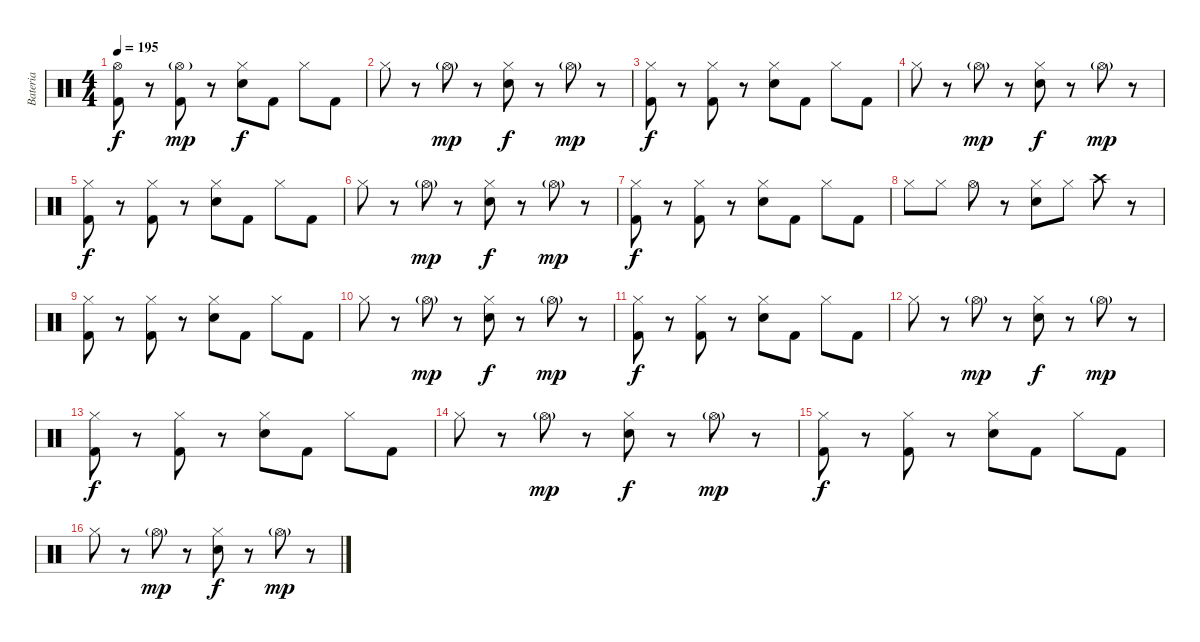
\track ("Bateria" "Bateria") {instrument percussion}
\staff {score}
\articulation defaults
\ts (4 4)
\tempo 195
\clef neutral
\ks c
("Hi-Hat (open)" "Kick (hit) 2").8{dy f} r.8 ("Hi-Hat (open)"{g} "Kick (hit) 2").8{dy mp} r.8 ("Hi-Hat (closed)" "Snare (hit) 2").8{dy f} "Kick (hit) 2".8 "Hi-Hat (closed)".8 "Kick (hit) 2".8 |
"Hi-Hat (closed)".8 r.8 "Hi-Hat (open)"{g}.8{dy mp} r.8 ("Hi-Hat (closed)" "Snare (hit) 2").8{dy f} r.8 "Hi-Hat (open)"{g}.8{dy mp} r.8 |
("Hi-Hat (closed)" "Kick (hit) 2").8{dy f} r.8 ("Hi-Hat (closed)" "Kick (hit) 2").8 r.8 ("Hi-Hat (closed)" "Snare (hit) 2").8 "Kick (hit) 2".8 "Hi-Hat (closed)".8 "Kick (hit) 2".8 |
"Hi-Hat (closed)".8 r.8 "Hi-Hat (open)"{g}.8{dy mp} r.8 ("Hi-Hat (closed)" "Snare (hit) 2").8{dy f} r.8 "Hi-Hat (open)"{g}.8{dy mp} r.8 |
("Hi-Hat (closed)" "Kick (hit) 2").8{dy f} r.8 ("Hi-Hat (closed)" "Kick (hit) 2").8 r.8 ("Hi-Hat (closed)" "Snare (hit) 2").8 "Kick (hit) 2".8 "Hi-Hat (closed)".8 "Kick (hit) 2".8 |
"Hi-Hat (closed)".8 r.8 "Hi-Hat (open)"{g}.8{dy mp} r.8 ("Hi-Hat (closed)" "Snare (hit) 2").8{dy f} r.8 "Hi-Hat (open)"{g}.8{dy mp} r.8 |
("Hi-Hat (closed)" "Kick (hit) 2").8{dy f} r.8 ("Hi-Hat (closed)" "Kick (hit) 2").8 r.8 ("Hi-Hat (closed)" "Snare (hit) 2").8 "Kick (hit) 2".8 "Hi-Hat (closed)".8 "Kick (hit) 2".8 |
"Hi-Hat (closed)".8 "Hi-Hat (closed)".8 "Hi-Hat (open)".8 r.8 ("Hi-Hat (closed)" "Snare (hit) 2").8 "Hi-Hat (closed)".8 "Crash high (hit)".8 r.8 |
("Hi-Hat (closed)" "Kick (hit) 2").8 r.8 ("Hi-Hat (closed)" "Kick (hit) 2").8 r.8 ("Hi-Hat (closed)" "Snare (hit) 2").8 "Kick (hit) 2".8 "Hi-Hat (closed)".8 "Kick (hit) 2".8 |
"Hi-Hat (closed)".8 r.8 "Hi-Hat (open)"{g}.8{dy mp} r.8 ("Hi-Hat (closed)" "Snare (hit) 2").8{dy f} r.8 "Hi-Hat (open)"{g}.8{dy mp} r.8 |
("Hi-Hat (closed)" "Kick (hit) 2").8{dy f} r.8 ("Hi-Hat (closed)" "Kick (hit) 2").8 r.8 ("Hi-Hat (closed)" "Snare (hit) 2").8 "Kick (hit) 2".8 "Hi-Hat (closed)".8 "Kick (hit) 2".8 |
"Hi-Hat (closed)".8 r.8 "Hi-Hat (open)"{g}.8{dy mp} r.8 ("Hi-Hat (closed)" "Snare (hit) 2").8{dy f} r.8 "Hi-Hat (open)"{g}.8{dy mp} r.8 |
("Hi-Hat (closed)" "Kick (hit) 2").8{dy f} r.8 ("Hi-Hat (closed)" "Kick (hit) 2").8 r.8 ("Hi-Hat (closed)" "Snare (hit) 2").8 "Kick (hit) 2".8 "Hi-Hat (closed)".8 "Kick (hit) 2".8 |
"Hi-Hat (closed)".8 r.8 "Hi-Hat (open)"{g}.8{dy mp} r.8 ("Hi-Hat (closed)" "Snare (hit) 2").8{dy f} r.8 "Hi-Hat (open)"{g}.8{dy mp} r.8 |
("Hi-Hat (closed)" "Kick (hit) 2").8{dy f} r.8 ("Hi-Hat (closed)" "Kick (hit) 2").8 r.8 ("Hi-Hat (closed)" "Snare (hit) 2").8 "Kick (hit) 2".8 "Hi-Hat (closed)".8 "Kick (hit) 2".8 |
"Hi-Hat (closed)".8 r.8 "Hi-Hat (open)"{g}.8{dy mp} r.8 ("Hi-Hat (closed)" "Snare (hit) 2").8{dy f} r.8 "Hi-Hat (open)"{g}.8{dy mp} r.8
